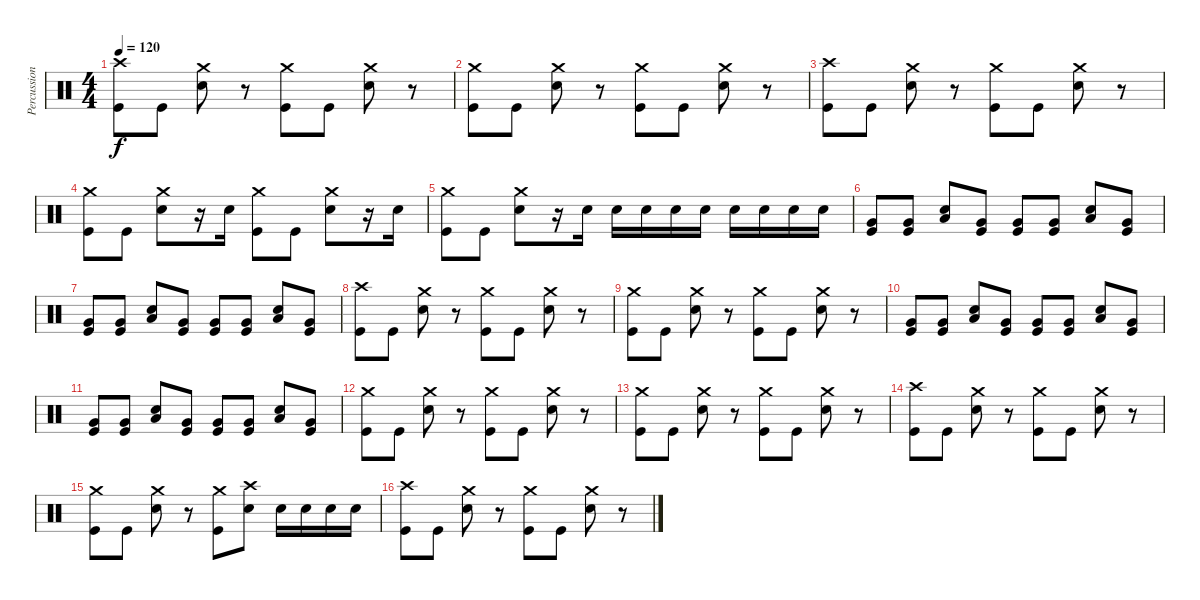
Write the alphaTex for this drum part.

\track ("Percussion" "Percussion") {instrument percussion}
\staff {score}
\articulation defaults
\ts (4 4)
\tempo 120
\clef neutral
\ks c
("Crash high (hit)" "Kick (hit)").8{dy f} "Kick (hit)".8 ("Crash medium (hit)" "Electric Snare (hit)").8 r.8 ("Crash medium (hit)" "Kick (hit)").8 "Kick (hit)".8 ("Crash medium (hit)" "Electric Snare (hit)").8 r.8 |
("Crash medium (hit)" "Kick (hit)").8 "Kick (hit)".8 ("Crash medium (hit)" "Electric Snare (hit)").8 r.8 ("Crash medium (hit)" "Kick (hit)").8 "Kick (hit)".8 ("Crash medium (hit)" "Electric Snare (hit)").8 r.8 |
("Crash high (hit)" "Kick (hit)").8 "Kick (hit)".8 ("Crash medium (hit)" "Electric Snare (hit)").8 r.8 ("Crash medium (hit)" "Kick (hit)").8 "Kick (hit)".8 ("Crash medium (hit)" "Electric Snare (hit)").8 r.8 |
("Crash medium (hit)" "Kick (hit)").8 "Kick (hit)".8 ("Crash medium (hit)" "Electric Snare (hit)").8 r.16 "Electric Snare (hit)".16 ("Crash medium (hit)" "Kick (hit)").8 "Kick (hit)".8 ("Crash medium (hit)" "Electric Snare (hit)").8 r.16 "Electric Snare (hit)".16 |
("Crash medium (hit)" "Kick (hit)").8 "Kick (hit)".8 ("Crash medium (hit)" "Electric Snare (hit)").8 r.16 "Electric Snare (hit)".16 "Electric Snare (hit)".16 "Electric Snare (hit)".16 "Electric Snare (hit)".16 "Electric Snare (hit)".16 "Electric Snare (hit)".16 "Electric Snare (hit)".16 "Electric Snare (hit)".16 "Electric Snare (hit)".16 |
("Very Low Tom (hit)" "Kick (hit)").8 ("Very Low Tom (hit)" "Kick (hit)").8 ("Low Floor Tom (hit)" "Electric Snare (hit)").8 ("Very Low Tom (hit)" "Kick (hit)").8 ("Very Low Tom (hit)" "Kick (hit)").8 ("Very Low Tom (hit)" "Kick (hit)").8 ("Low Floor Tom (hit)" "Electric Snare (hit)").8 ("Very Low Tom (hit)" "Kick (hit)").8 |
("Very Low Tom (hit)" "Kick (hit)").8 ("Very Low Tom (hit)" "Kick (hit)").8 ("Low Floor Tom (hit)" "Electric Snare (hit)").8 ("Very Low Tom (hit)" "Kick (hit)").8 ("Very Low Tom (hit)" "Kick (hit)").8 ("Very Low Tom (hit)" "Kick (hit)").8 ("Low Floor Tom (hit)" "Electric Snare (hit)").8 ("Very Low Tom (hit)" "Kick (hit)").8 |
("Crash high (hit)" "Kick (hit)").8 "Kick (hit)".8 ("Crash medium (hit)" "Electric Snare (hit)").8 r.8 ("Crash medium (hit)" "Kick (hit)").8 "Kick (hit)".8 ("Crash medium (hit)" "Electric Snare (hit)").8 r.8 |
("Crash medium (hit)" "Kick (hit)").8 "Kick (hit)".8 ("Crash medium (hit)" "Electric Snare (hit)").8 r.8 ("Crash medium (hit)" "Kick (hit)").8 "Kick (hit)".8 ("Crash medium (hit)" "Electric Snare (hit)").8 r.8 |
("Very Low Tom (hit)" "Kick (hit)").8 ("Very Low Tom (hit)" "Kick (hit)").8 ("Low Floor Tom (hit)" "Electric Snare (hit)").8 ("Very Low Tom (hit)" "Kick (hit)").8 ("Very Low Tom (hit)" "Kick (hit)").8 ("Very Low Tom (hit)" "Kick (hit)").8 ("Low Floor Tom (hit)" "Electric Snare (hit)").8 ("Very Low Tom (hit)" "Kick (hit)").8 |
("Very Low Tom (hit)" "Kick (hit)").8 ("Very Low Tom (hit)" "Kick (hit)").8 ("Low Floor Tom (hit)" "Electric Snare (hit)").8 ("Very Low Tom (hit)" "Kick (hit)").8 ("Very Low Tom (hit)" "Kick (hit)").8 ("Very Low Tom (hit)" "Kick (hit)").8 ("Low Floor Tom (hit)" "Electric Snare (hit)").8 ("Very Low Tom (hit)" "Kick (hit)").8 |
("Crash medium (hit)" "Kick (hit)").8 "Kick (hit)".8 ("Crash medium (hit)" "Electric Snare (hit)").8 r.8 ("Crash medium (hit)" "Kick (hit)").8 "Kick (hit)".8 ("Crash medium (hit)" "Electric Snare (hit)").8 r.8 |
("Crash medium (hit)" "Kick (hit)").8 "Kick (hit)".8 ("Crash medium (hit)" "Electric Snare (hit)").8 r.8 ("Crash medium (hit)" "Kick (hit)").8 "Kick (hit)".8 ("Crash medium (hit)" "Electric Snare (hit)").8 r.8 |
("Crash high (hit)" "Kick (hit)").8 "Kick (hit)".8 ("Crash medium (hit)" "Electric Snare (hit)").8 r.8 ("Crash medium (hit)" "Kick (hit)").8 "Kick (hit)".8 ("Crash medium (hit)" "Electric Snare (hit)").8 r.8 |
("Crash medium (hit)" "Kick (hit)").8 "Kick (hit)".8 ("Crash medium (hit)" "Electric Snare (hit)").8 r.8 ("Crash medium (hit)" "Kick (hit)").8 ("Crash high (hit)" "Electric Snare (hit)").8 "Electric Snare (hit)".16 "Electric Snare (hit)".16 "Electric Snare (hit)".16 "Electric Snare (hit)".16 |
("Crash high (hit)" "Kick (hit)").8 "Kick (hit)".8 ("Crash medium (hit)" "Electric Snare (hit)").8 r.8 ("Crash medium (hit)" "Kick (hit)").8 "Kick (hit)".8 ("Crash medium (hit)" "Electric Snare (hit)").8 r.8
